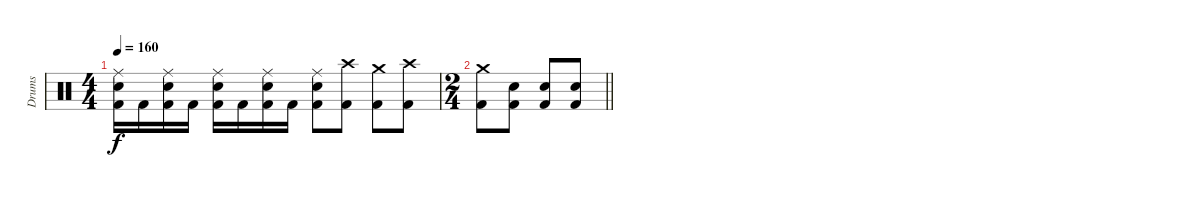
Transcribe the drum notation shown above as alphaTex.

\track ("Drums" "Drums") {instrument percussion}
\staff {score}
\articulation defaults
\ts (4 4)
\tempo 160
\clef neutral
\ks c
("Ride (middle)" "Electric Snare (hit)" "Kick (hit) 2").16{dy f} "Kick (hit) 2".16 ("Ride (middle)" "Electric Snare (hit)" "Kick (hit) 2").16 "Kick (hit) 2".16 ("Ride (middle)" "Electric Snare (hit)" "Kick (hit) 2").16 "Kick (hit) 2".16 ("Ride (middle)" "Electric Snare (hit)" "Kick (hit) 2").16 "Kick (hit) 2".16 ("Ride (middle)" "Electric Snare (hit)" "Kick (hit) 2").8 ("Crash high (hit)" "Kick (hit) 2").8 ("Crash medium (hit)" "Kick (hit) 2").8 ("Crash high (hit)" "Kick (hit) 2").8 |
\ts (2 4)
\barLineRight lightlight
("Crash medium (hit)" "Kick (hit) 2").8 ("Electric Snare (hit)" "Kick (hit) 2").8 ("Electric Snare (hit)" "Kick (hit) 2").8 ("Electric Snare (hit)" "Kick (hit) 2").8
